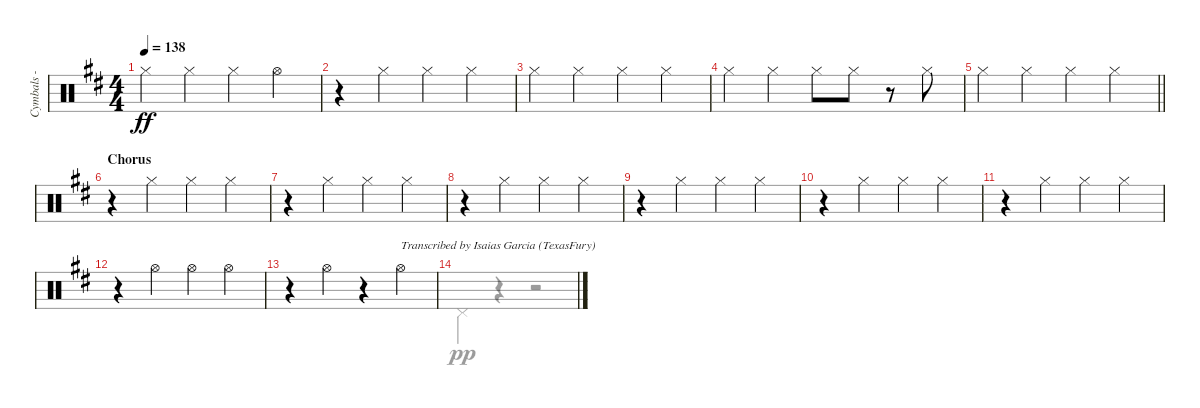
\track ("Cymbals - hi-hat" "Cymbals - ") {instrument percussion}
\staff {score}
\articulation defaults
\voice
\ts (4 4)
\tempo 138
\clef neutral
\ks d "Hi-Hat (closed)".4{dy ff} "Hi-Hat (closed)".4 "Hi-Hat (closed)".4 "Hi-Hat (open)".4
|
r.4 "Hi-Hat (closed)".4 "Hi-Hat (closed)".4 "Hi-Hat (closed)".4 |
"Hi-Hat (closed)".4 "Hi-Hat (closed)".4 "Hi-Hat (closed)".4 "Hi-Hat (closed)".4 |
"Hi-Hat (closed)".4 "Hi-Hat (closed)".4 "Hi-Hat (closed)".8 "Hi-Hat (closed)".8 r.8 "Hi-Hat (closed)".8 |
\barLineRight lightlight "Hi-Hat (closed)".4 "Hi-Hat (closed)".4 "Hi-Hat (closed)".4 "Hi-Hat (closed)".4
|
\section ("" "Chorus")
r.4 "Hi-Hat (closed)".4 "Hi-Hat (closed)".4 "Hi-Hat (closed)".4 |
r.4 "Hi-Hat (closed)".4 "Hi-Hat (closed)".4 "Hi-Hat (closed)".4 |
r.4 "Hi-Hat (closed)".4 "Hi-Hat (closed)".4 "Hi-Hat (closed)".4 |
r.4 "Hi-Hat (closed)".4 "Hi-Hat (closed)".4 "Hi-Hat (closed)".4 |
r.4 "Hi-Hat (closed)".4 "Hi-Hat (closed)".4 "Hi-Hat (closed)".4 |
r.4 "Hi-Hat (closed)".4 "Hi-Hat (closed)".4 "Hi-Hat (closed)".4 |
r.4 "Hi-Hat (open)".4 "Hi-Hat (open)".4 "Hi-Hat (open)".4 |
r.4 "Hi-Hat (open)".4 r.4 "Hi-Hat (open)".4{txt "Transcribed by Isaias Garcia (TexasFury)"} |
\voice
\clef neutral
\ottava regular
\simile none
\ks d
|
|
|
|
\barLineRight lightlight
|
|
|
|
|
|
|
|
|
"Pedal Hi-Hat (hit)".4{dy pp} r.4 r.2
